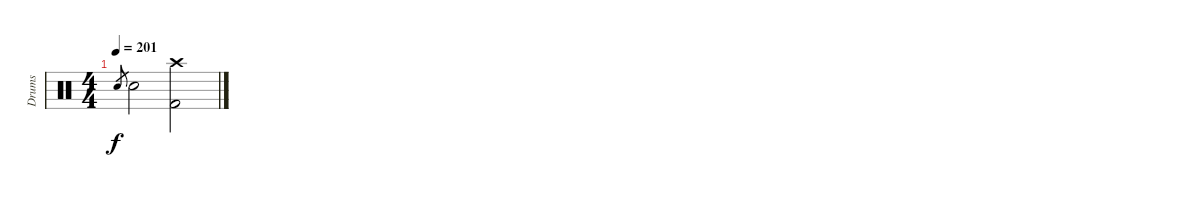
\track ("Drums" "Drums") {instrument percussion}
\staff {score}
\articulation defaults
\ts (4 4)
\tempo 201
\clef neutral
\ks c "Electric Snare (hit)".8{gr dy f} "Electric Snare (hit)".2
("Crash high (hit)" "Kick (hit) 2").2
